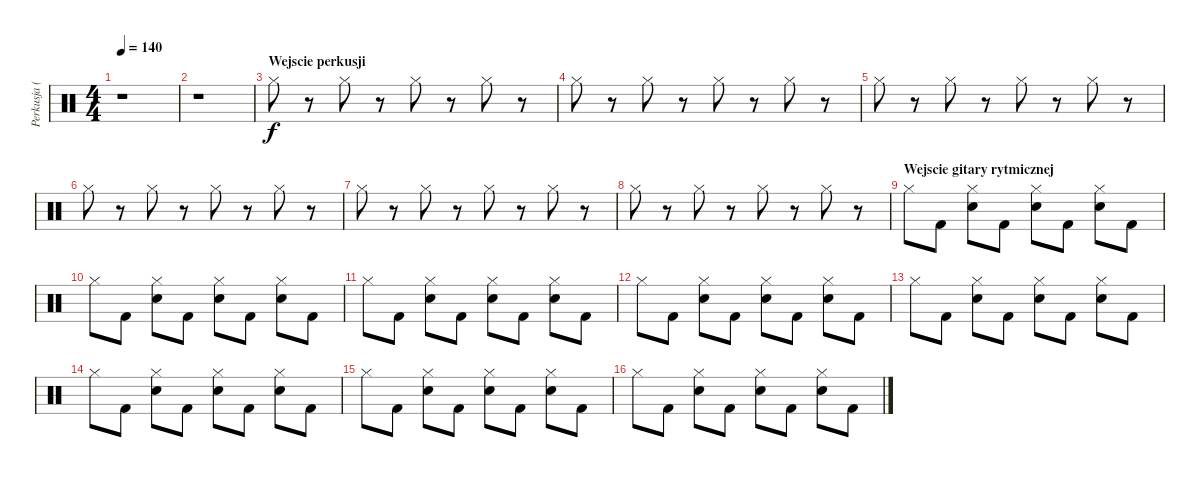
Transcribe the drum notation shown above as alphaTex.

\track ("Perkusja (Piejo)" "Perkusja (") {instrument percussion}
\staff {score}
\articulation defaults
\ts (4 4)
\tempo 140
\clef neutral
\ks c
r.1{dy f} |
r.1 |
\section ("" "Wejscie perkusji")
"Hi-Hat (closed)".8 r.8 "Hi-Hat (closed)".8 r.8 "Hi-Hat (closed)".8 r.8 "Hi-Hat (closed)".8 r.8 |
"Hi-Hat (closed)".8 r.8 "Hi-Hat (closed)".8 r.8 "Hi-Hat (closed)".8 r.8 "Hi-Hat (closed)".8 r.8 |
"Hi-Hat (closed)".8 r.8 "Hi-Hat (closed)".8 r.8 "Hi-Hat (closed)".8 r.8 "Hi-Hat (closed)".8 r.8 |
"Hi-Hat (closed)".8 r.8 "Hi-Hat (closed)".8 r.8 "Hi-Hat (closed)".8 r.8 "Hi-Hat (closed)".8 r.8 |
"Hi-Hat (closed)".8 r.8 "Hi-Hat (closed)".8 r.8 "Hi-Hat (closed)".8 r.8 "Hi-Hat (closed)".8 r.8 |
"Hi-Hat (closed)".8 r.8 "Hi-Hat (closed)".8 r.8 "Hi-Hat (closed)".8 r.8 "Hi-Hat (closed)".8 r.8 |
\section ("" "Wejscie gitary rytmicznej")
"Hi-Hat (closed)".8 "Kick (hit) 2".8 ("Hi-Hat (closed)" "Electric Snare (hit)").8 "Kick (hit) 2".8 ("Hi-Hat (closed)" "Electric Snare (hit)").8 "Kick (hit) 2".8 ("Hi-Hat (closed)" "Electric Snare (hit)").8 "Kick (hit) 2".8 |
"Hi-Hat (closed)".8 "Kick (hit) 2".8 ("Hi-Hat (closed)" "Electric Snare (hit)").8 "Kick (hit) 2".8 ("Hi-Hat (closed)" "Electric Snare (hit)").8 "Kick (hit) 2".8 ("Hi-Hat (closed)" "Electric Snare (hit)").8 "Kick (hit) 2".8 |
"Hi-Hat (closed)".8 "Kick (hit) 2".8 ("Hi-Hat (closed)" "Electric Snare (hit)").8 "Kick (hit) 2".8 ("Hi-Hat (closed)" "Electric Snare (hit)").8 "Kick (hit) 2".8 ("Hi-Hat (closed)" "Electric Snare (hit)").8 "Kick (hit) 2".8 |
"Hi-Hat (closed)".8 "Kick (hit) 2".8 ("Hi-Hat (closed)" "Electric Snare (hit)").8 "Kick (hit) 2".8 ("Hi-Hat (closed)" "Electric Snare (hit)").8 "Kick (hit) 2".8 ("Hi-Hat (closed)" "Electric Snare (hit)").8 "Kick (hit) 2".8 |
"Hi-Hat (closed)".8 "Kick (hit) 2".8 ("Hi-Hat (closed)" "Electric Snare (hit)").8 "Kick (hit) 2".8 ("Hi-Hat (closed)" "Electric Snare (hit)").8 "Kick (hit) 2".8 ("Hi-Hat (closed)" "Electric Snare (hit)").8 "Kick (hit) 2".8 |
"Hi-Hat (closed)".8 "Kick (hit) 2".8 ("Hi-Hat (closed)" "Electric Snare (hit)").8 "Kick (hit) 2".8 ("Hi-Hat (closed)" "Electric Snare (hit)").8 "Kick (hit) 2".8 ("Hi-Hat (closed)" "Electric Snare (hit)").8 "Kick (hit) 2".8 |
"Hi-Hat (closed)".8 "Kick (hit) 2".8 ("Hi-Hat (closed)" "Electric Snare (hit)").8 "Kick (hit) 2".8 ("Hi-Hat (closed)" "Electric Snare (hit)").8 "Kick (hit) 2".8 ("Hi-Hat (closed)" "Electric Snare (hit)").8 "Kick (hit) 2".8 |
"Hi-Hat (closed)".8 "Kick (hit) 2".8 ("Hi-Hat (closed)" "Electric Snare (hit)").8 "Kick (hit) 2".8 ("Hi-Hat (closed)" "Electric Snare (hit)").8 "Kick (hit) 2".8 ("Hi-Hat (closed)" "Electric Snare (hit)").8 "Kick (hit) 2".8
